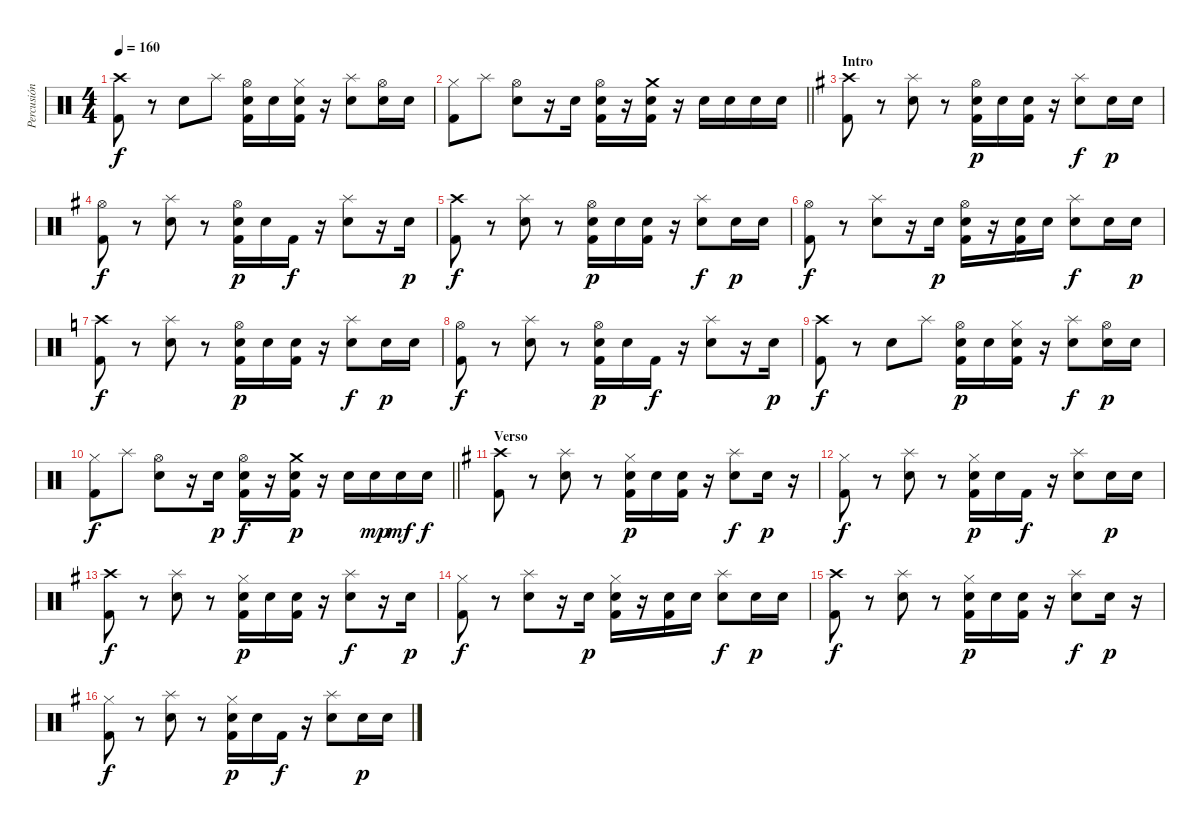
\track ("Percusión" "Percusión") {instrument percussion}
\staff {score}
\articulation defaults
\ts (4 4)
\tempo 160
\clef neutral
\ks c
("Crash high (hit)" "Kick (hit) 2").8{dy f} r.8 "Electric Snare (hit)".8 "Splash (hit)".8 ("Hi-Hat (open)" "Electric Snare (hit)" "Kick (hit) 2").16 "Electric Snare (hit)".16 ("Hi-Hat (closed)" "Electric Snare (hit)" "Kick (hit) 2").16 r.16 ("Splash (hit)" "Electric Snare (hit)").8 ("Hi-Hat (open)" "Electric Snare (hit)").16 "Electric Snare (hit)".16 |
\barLineRight lightlight
("Hi-Hat (closed)" "Kick (hit) 2").8 "Splash (hit)".8 ("Hi-Hat (open)" "Electric Snare (hit)").8 r.16 "Electric Snare (hit)".16 ("Hi-Hat (open)" "Electric Snare (hit)" "Kick (hit) 2").16 r.16 ("Crash medium (hit)" "Electric Snare (hit)" "Kick (hit) 2").16 r.16 "Electric Snare (hit)".16 "Electric Snare (hit)".16 "Electric Snare (hit)".16 "Electric Snare (hit)".16 |
\section ("" "Intro")
\ks g
("Crash high (hit)" "Kick (hit) 2").8 r.8 ("Splash (hit)" "Electric Snare (hit)").8 r.8 ("Hi-Hat (open)" "Electric Snare (hit)" "Kick (hit) 2").16{dy p} "Electric Snare (hit)".16 ("Electric Snare (hit)" "Kick (hit) 2").16 r.16 ("Splash (hit)" "Electric Snare (hit)").8{dy f} "Electric Snare (hit)".16{dy p} "Electric Snare (hit)".16 |
("Hi-Hat (open)" "Kick (hit) 2").8{dy f} r.8 ("Splash (hit)" "Electric Snare (hit)").8 r.8 ("Hi-Hat (open)" "Electric Snare (hit)" "Kick (hit) 2").16{dy p} "Electric Snare (hit)".16 "Kick (hit) 2".16{dy f} r.16 ("Splash (hit)" "Electric Snare (hit)").8 r.16 "Electric Snare (hit)".16{dy p} |
("Crash high (hit)" "Kick (hit) 2").8{dy f} r.8 ("Splash (hit)" "Electric Snare (hit)").8 r.8 ("Hi-Hat (open)" "Electric Snare (hit)" "Kick (hit) 2").16{dy p} "Electric Snare (hit)".16 ("Electric Snare (hit)" "Kick (hit) 2").16 r.16 ("Splash (hit)" "Electric Snare (hit)").8{dy f} "Electric Snare (hit)".16{dy p} "Electric Snare (hit)".16 |
("Hi-Hat (open)" "Kick (hit) 2").8{dy f} r.8 ("Splash (hit)" "Electric Snare (hit)").8 r.16 "Electric Snare (hit)".16{dy p} ("Hi-Hat (open)" "Electric Snare (hit)" "Kick (hit) 2").16 r.16 ("Electric Snare (hit)" "Kick (hit) 2").16 "Electric Snare (hit)".16 ("Splash (hit)" "Electric Snare (hit)").8{dy f} "Electric Snare (hit)".16 "Electric Snare (hit)".16{dy p} |
\ks c
("Crash high (hit)" "Kick (hit) 2").8{dy f} r.8 ("Splash (hit)" "Electric Snare (hit)").8 r.8 ("Hi-Hat (open)" "Electric Snare (hit)" "Kick (hit) 2").16{dy p} "Electric Snare (hit)".16 ("Electric Snare (hit)" "Kick (hit) 2").16 r.16 ("Splash (hit)" "Electric Snare (hit)").8{dy f} "Electric Snare (hit)".16{dy p} "Electric Snare (hit)".16 |
("Hi-Hat (open)" "Kick (hit) 2").8{dy f} r.8 ("Splash (hit)" "Electric Snare (hit)").8 r.8 ("Hi-Hat (open)" "Electric Snare (hit)" "Kick (hit) 2").16{dy p} "Electric Snare (hit)".16 "Kick (hit) 2".16{dy f} r.16 ("Splash (hit)" "Electric Snare (hit)").8 r.16 "Electric Snare (hit)".16{dy p} |
("Crash high (hit)" "Kick (hit) 2").8{dy f} r.8 "Electric Snare (hit)".8 "Splash (hit)".8 ("Hi-Hat (open)" "Electric Snare (hit)" "Kick (hit) 2").16{dy p} "Electric Snare (hit)".16 ("Hi-Hat (closed)" "Electric Snare (hit)" "Kick (hit) 2").16 r.16 ("Splash (hit)" "Electric Snare (hit)").8{dy f} ("Hi-Hat (open)" "Electric Snare (hit)").16{dy p} "Electric Snare (hit)".16 |
\barLineRight lightlight
("Hi-Hat (closed)" "Kick (hit) 2").8{dy f} "Splash (hit)".8 ("Hi-Hat (open)" "Electric Snare (hit)").8 r.16 "Electric Snare (hit)".16{dy p} ("Hi-Hat (open)" "Electric Snare (hit)" "Kick (hit) 2").16{dy f} r.16 ("Crash medium (hit)" "Electric Snare (hit)" "Kick (hit) 2").16{dy p} r.16 "Electric Snare (hit)".16 "Electric Snare (hit)".16{dy mp} "Electric Snare (hit)".16{dy mf} "Electric Snare (hit)".16{dy f} |
\section ("" "Verso")
\ks g
("Crash high (hit)" "Kick (hit) 2").8 r.8 ("Splash (hit)" "Electric Snare (hit)").8 r.8 ("Hi-Hat (closed)" "Electric Snare (hit)" "Kick (hit) 2").16{dy p} "Electric Snare (hit)".16 ("Electric Snare (hit)" "Kick (hit) 2").16 r.16 ("Splash (hit)" "Electric Snare (hit)").8{dy f} "Electric Snare (hit)".16{dy p} r.16 |
("Hi-Hat (closed)" "Kick (hit) 2").8{dy f} r.8 ("Splash (hit)" "Electric Snare (hit)").8 r.8 ("Hi-Hat (closed)" "Electric Snare (hit)" "Kick (hit) 2").16{dy p} "Electric Snare (hit)".16 "Kick (hit) 2".16{dy f} r.16 ("Splash (hit)" "Electric Snare (hit)").8 "Electric Snare (hit)".16{dy p} "Electric Snare (hit)".16 |
("Crash high (hit)" "Kick (hit) 2").8{dy f} r.8 ("Splash (hit)" "Electric Snare (hit)").8 r.8 ("Hi-Hat (closed)" "Electric Snare (hit)" "Kick (hit) 2").16{dy p} "Electric Snare (hit)".16 ("Electric Snare (hit)" "Kick (hit) 2").16 r.16 ("Splash (hit)" "Electric Snare (hit)").8{dy f} r.16 "Electric Snare (hit)".16{dy p} |
("Hi-Hat (closed)" "Kick (hit) 2").8{dy f} r.8 ("Splash (hit)" "Electric Snare (hit)").8 r.16 "Electric Snare (hit)".16{dy p} ("Hi-Hat (closed)" "Electric Snare (hit)" "Kick (hit) 2").16 r.16 ("Electric Snare (hit)" "Kick (hit) 2").16 "Electric Snare (hit)".16 ("Splash (hit)" "Electric Snare (hit)").8{dy f} "Electric Snare (hit)".16{dy p} "Electric Snare (hit)".16 |
("Crash high (hit)" "Kick (hit) 2").8{dy f} r.8 ("Splash (hit)" "Electric Snare (hit)").8 r.8 ("Hi-Hat (closed)" "Electric Snare (hit)" "Kick (hit) 2").16{dy p} "Electric Snare (hit)".16 ("Electric Snare (hit)" "Kick (hit) 2").16 r.16 ("Splash (hit)" "Electric Snare (hit)").8{dy f} "Electric Snare (hit)".16{dy p} r.16 |
("Hi-Hat (closed)" "Kick (hit) 2").8{dy f} r.8 ("Splash (hit)" "Electric Snare (hit)").8 r.8 ("Hi-Hat (closed)" "Electric Snare (hit)" "Kick (hit) 2").16{dy p} "Electric Snare (hit)".16 "Kick (hit) 2".16{dy f} r.16 ("Splash (hit)" "Electric Snare (hit)").8 "Electric Snare (hit)".16{dy p} "Electric Snare (hit)".16
